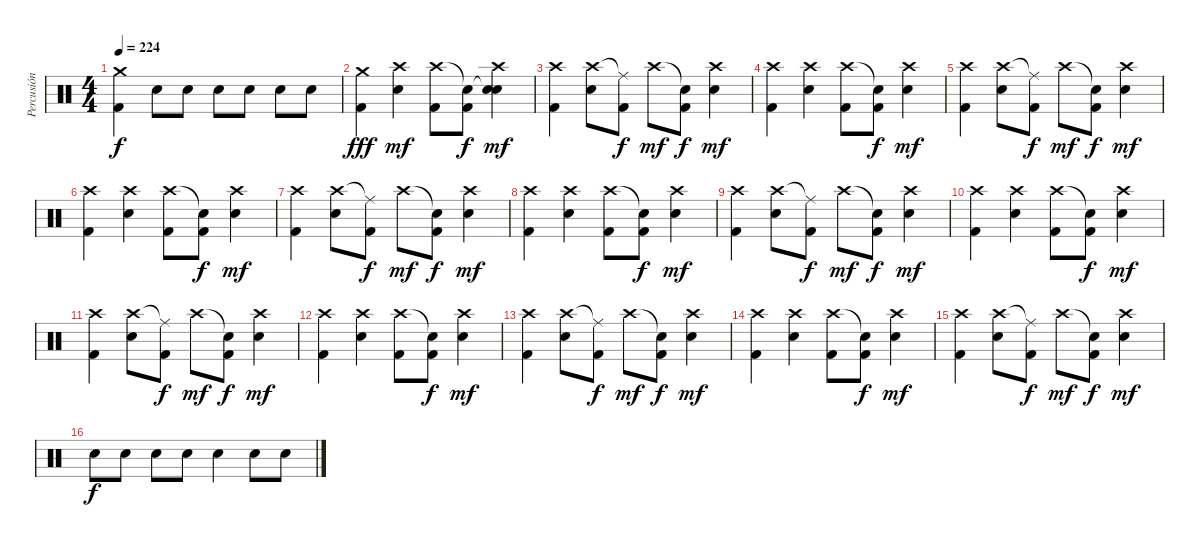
\track ("Percusión" "Percusión") {instrument percussion}
\staff {score}
\articulation defaults
\ts (4 4)
\tempo 224
\clef neutral
\ks c
("Crash medium (hit)" "Kick (hit) 2").4{dy f} "Electric Snare (hit)".8 "Electric Snare (hit)".8 "Electric Snare (hit)".8 "Electric Snare (hit)".8 "Electric Snare (hit)".8 "Electric Snare (hit)".8 |
("Crash medium (hit)" "Kick (hit) 2").4{dy fff volume 13} ("Crash high (hit)" "Electric Snare (hit)").4{dy mf} ("Crash high (hit)" "Kick (hit) 2").8 ("Snare (hit)"{t} "Kick (hit) 2").8{dy f} ("Snare (hit)"{t} "Crash high (hit)" "Electric Snare (hit)").4{dy mf} |
("Crash high (hit)" "Kick (hit) 2").4 ("Crash high (hit)" "Electric Snare (hit)").8 ("Ride (middle)"{t} "Kick (hit) 2").8{dy f} "Crash high (hit)".8{dy mf} ("Snare (hit)"{t} "Kick (hit) 2").8{dy f} ("Crash high (hit)" "Electric Snare (hit)").4{dy mf} |
("Crash high (hit)" "Kick (hit) 2").4 ("Crash high (hit)" "Electric Snare (hit)").4 ("Crash high (hit)" "Kick (hit) 2").8 ("Snare (hit)"{t} "Kick (hit) 2").8{dy f} ("Crash high (hit)" "Electric Snare (hit)").4{dy mf} |
("Crash high (hit)" "Kick (hit) 2").4 ("Crash high (hit)" "Electric Snare (hit)").8 ("Ride (middle)"{t} "Kick (hit) 2").8{dy f} "Crash high (hit)".8{dy mf} ("Snare (hit)"{t} "Kick (hit) 2").8{dy f} ("Crash high (hit)" "Electric Snare (hit)").4{dy mf} |
("Crash high (hit)" "Kick (hit) 2").4 ("Crash high (hit)" "Electric Snare (hit)").4 ("Crash high (hit)" "Kick (hit) 2").8 ("Snare (hit)"{t} "Kick (hit) 2").8{dy f} ("Crash high (hit)" "Electric Snare (hit)").4{dy mf} |
("Crash high (hit)" "Kick (hit) 2").4 ("Crash high (hit)" "Electric Snare (hit)").8 ("Ride (middle)"{t} "Kick (hit) 2").8{dy f} "Crash high (hit)".8{dy mf} ("Snare (hit)"{t} "Kick (hit) 2").8{dy f} ("Crash high (hit)" "Electric Snare (hit)").4{dy mf} |
("Crash high (hit)" "Kick (hit) 2").4 ("Crash high (hit)" "Electric Snare (hit)").4 ("Crash high (hit)" "Kick (hit) 2").8 ("Snare (hit)"{t} "Kick (hit) 2").8{dy f} ("Crash high (hit)" "Electric Snare (hit)").4{dy mf} |
("Crash high (hit)" "Kick (hit) 2").4 ("Crash high (hit)" "Electric Snare (hit)").8 ("Ride (middle)"{t} "Kick (hit) 2").8{dy f} "Crash high (hit)".8{dy mf} ("Snare (hit)"{t} "Kick (hit) 2").8{dy f} ("Crash high (hit)" "Electric Snare (hit)").4{dy mf} |
("Crash high (hit)" "Kick (hit) 2").4 ("Crash high (hit)" "Electric Snare (hit)").4 ("Crash high (hit)" "Kick (hit) 2").8 ("Snare (hit)"{t} "Kick (hit) 2").8{dy f} ("Crash high (hit)" "Electric Snare (hit)").4{dy mf} |
("Crash high (hit)" "Kick (hit) 2").4 ("Crash high (hit)" "Electric Snare (hit)").8 ("Ride (middle)"{t} "Kick (hit) 2").8{dy f} "Crash high (hit)".8{dy mf} ("Snare (hit)"{t} "Kick (hit) 2").8{dy f} ("Crash high (hit)" "Electric Snare (hit)").4{dy mf} |
("Crash high (hit)" "Kick (hit) 2").4 ("Crash high (hit)" "Electric Snare (hit)").4 ("Crash high (hit)" "Kick (hit) 2").8 ("Snare (hit)"{t} "Kick (hit) 2").8{dy f} ("Crash high (hit)" "Electric Snare (hit)").4{dy mf} |
("Crash high (hit)" "Kick (hit) 2").4 ("Crash high (hit)" "Electric Snare (hit)").8 ("Ride (middle)"{t} "Kick (hit) 2").8{dy f} "Crash high (hit)".8{dy mf} ("Snare (hit)"{t} "Kick (hit) 2").8{dy f} ("Crash high (hit)" "Electric Snare (hit)").4{dy mf} |
("Crash high (hit)" "Kick (hit) 2").4 ("Crash high (hit)" "Electric Snare (hit)").4 ("Crash high (hit)" "Kick (hit) 2").8 ("Snare (hit)"{t} "Kick (hit) 2").8{dy f} ("Crash high (hit)" "Electric Snare (hit)").4{dy mf} |
("Crash high (hit)" "Kick (hit) 2").4 ("Crash high (hit)" "Electric Snare (hit)").8 ("Ride (middle)"{t} "Kick (hit) 2").8{dy f} "Crash high (hit)".8{dy mf} ("Snare (hit)"{t} "Kick (hit) 2").8{dy f} ("Crash high (hit)" "Electric Snare (hit)").4{dy mf} |
"Electric Snare (hit)".8{dy f} "Electric Snare (hit)".8 "Electric Snare (hit)".8 "Electric Snare (hit)".8 "Electric Snare (hit)".4 "Electric Snare (hit)".8 "Electric Snare (hit)".8
